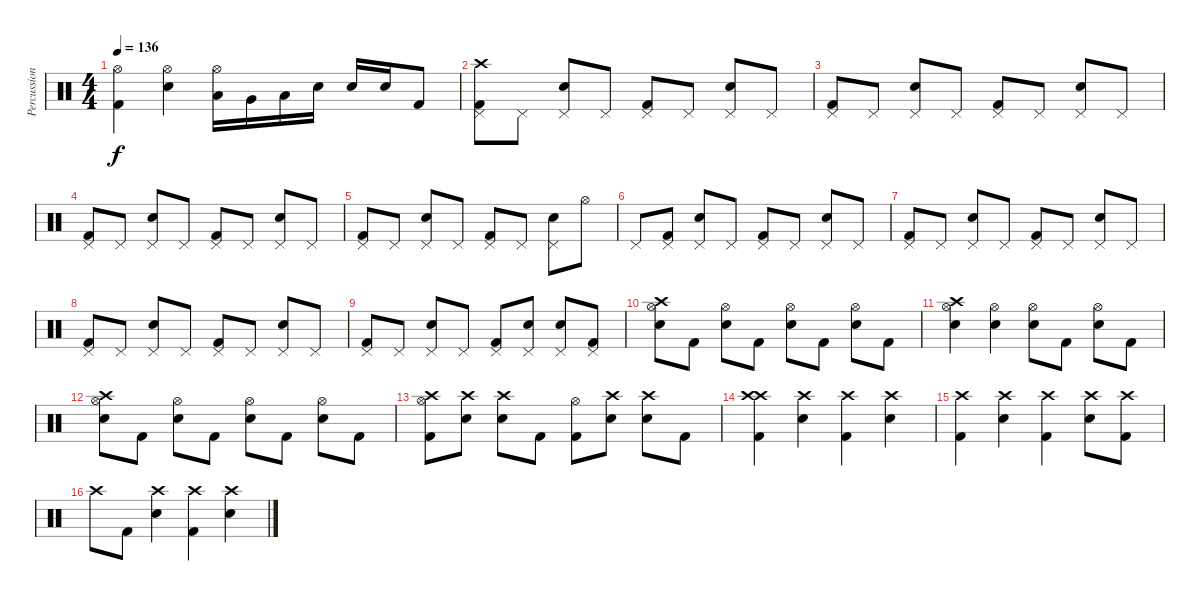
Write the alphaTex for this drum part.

\track ("Percussion" "Percussion") {instrument percussion}
\staff {score}
\articulation defaults
\ts (4 4)
\tempo 136
\clef neutral
\ks c
("Kick (hit) 2" "Hi-Hat (open)").4{dy f} ("Snare (hit) 2" "Hi-Hat (open)").4 ("Low Tom (hit)" "Hi-Hat (open)").16 "Very Low Tom (hit)".16 "Low Floor Tom (hit)".16 "Snare (hit) 2".16 "Snare (hit) 2".16 "Snare (hit) 2".16 "Kick (hit) 2".8 |
("Kick (hit) 2" "Pedal Hi-Hat (hit)" "Crash high (hit)").8 "Pedal Hi-Hat (hit)".8 ("Snare (hit) 2" "Pedal Hi-Hat (hit)").8 "Pedal Hi-Hat (hit)".8 ("Kick (hit) 2" "Pedal Hi-Hat (hit)").8 "Pedal Hi-Hat (hit)".8 ("Snare (hit) 2" "Pedal Hi-Hat (hit)").8 "Pedal Hi-Hat (hit)".8 |
("Kick (hit) 2" "Pedal Hi-Hat (hit)").8 "Pedal Hi-Hat (hit)".8 ("Snare (hit) 2" "Pedal Hi-Hat (hit)").8 "Pedal Hi-Hat (hit)".8 ("Kick (hit) 2" "Pedal Hi-Hat (hit)").8 "Pedal Hi-Hat (hit)".8 ("Snare (hit) 2" "Pedal Hi-Hat (hit)").8 "Pedal Hi-Hat (hit)".8 |
("Kick (hit) 2" "Pedal Hi-Hat (hit)").8 "Pedal Hi-Hat (hit)".8 ("Snare (hit) 2" "Pedal Hi-Hat (hit)").8 "Pedal Hi-Hat (hit)".8 ("Kick (hit) 2" "Pedal Hi-Hat (hit)").8 "Pedal Hi-Hat (hit)".8 ("Snare (hit) 2" "Pedal Hi-Hat (hit)").8 "Pedal Hi-Hat (hit)".8 |
("Kick (hit) 2" "Pedal Hi-Hat (hit)").8 "Pedal Hi-Hat (hit)".8 ("Snare (hit) 2" "Pedal Hi-Hat (hit)").8 "Pedal Hi-Hat (hit)".8 ("Kick (hit) 2" "Pedal Hi-Hat (hit)").8 "Pedal Hi-Hat (hit)".8 ("Snare (hit) 2" "Pedal Hi-Hat (hit)").8 "Hi-Hat (open)".8 |
"Pedal Hi-Hat (hit)".8 ("Kick (hit) 2" "Pedal Hi-Hat (hit)").8 ("Snare (hit) 2" "Pedal Hi-Hat (hit)").8 "Pedal Hi-Hat (hit)".8 ("Kick (hit) 2" "Pedal Hi-Hat (hit)").8 "Pedal Hi-Hat (hit)".8 ("Snare (hit) 2" "Pedal Hi-Hat (hit)").8 "Pedal Hi-Hat (hit)".8 |
("Kick (hit) 2" "Pedal Hi-Hat (hit)").8 "Pedal Hi-Hat (hit)".8 ("Snare (hit) 2" "Pedal Hi-Hat (hit)").8 "Pedal Hi-Hat (hit)".8 ("Kick (hit) 2" "Pedal Hi-Hat (hit)").8 "Pedal Hi-Hat (hit)".8 ("Snare (hit) 2" "Pedal Hi-Hat (hit)").8 "Pedal Hi-Hat (hit)".8 |
("Kick (hit) 2" "Pedal Hi-Hat (hit)").8 "Pedal Hi-Hat (hit)".8 ("Snare (hit) 2" "Pedal Hi-Hat (hit)").8 "Pedal Hi-Hat (hit)".8 ("Kick (hit) 2" "Pedal Hi-Hat (hit)").8 "Pedal Hi-Hat (hit)".8 ("Snare (hit) 2" "Pedal Hi-Hat (hit)").8 "Pedal Hi-Hat (hit)".8 |
("Kick (hit) 2" "Pedal Hi-Hat (hit)").8 "Pedal Hi-Hat (hit)".8 ("Snare (hit) 2" "Pedal Hi-Hat (hit)").8 "Pedal Hi-Hat (hit)".8 ("Kick (hit) 2" "Pedal Hi-Hat (hit)").8 ("Snare (hit) 2" "Pedal Hi-Hat (hit)").8 ("Snare (hit) 2" "Pedal Hi-Hat (hit)").8 ("Kick (hit) 2" "Pedal Hi-Hat (hit)").8 |
("Snare (hit) 2" "Hi-Hat (open)" "Crash high (hit)").8 "Kick (hit) 2".8 ("Snare (hit) 2" "Hi-Hat (open)").8 "Kick (hit) 2".8 ("Snare (hit) 2" "Hi-Hat (open)").8 "Kick (hit) 2".8 ("Snare (hit) 2" "Hi-Hat (open)").8 "Kick (hit) 2".8 |
("Snare (hit) 2" "Hi-Hat (open)" "Crash high (hit)").4 ("Snare (hit) 2" "Hi-Hat (open)").4 ("Snare (hit) 2" "Hi-Hat (open)").8 "Kick (hit) 2".8 ("Snare (hit) 2" "Hi-Hat (open)").8 "Kick (hit) 2".8 |
("Snare (hit) 2" "Hi-Hat (open)" "Crash high (hit)").8 "Kick (hit) 2".8 ("Snare (hit) 2" "Hi-Hat (open)").8 "Kick (hit) 2".8 ("Snare (hit) 2" "Hi-Hat (open)").8 "Kick (hit) 2".8 ("Snare (hit) 2" "Hi-Hat (open)").8 "Kick (hit) 2".8 |
("Kick (hit) 2" "Hi-Hat (open)" "Crash high (hit)").8 ("Snare (hit) 2" "Crash high (hit)").8 ("Snare (hit) 2" "Crash high (hit)").8 "Kick (hit) 2".8 ("Kick (hit) 2" "Hi-Hat (open)").8 ("Snare (hit) 2" "Crash high (hit)").8 ("Snare (hit) 2" "Crash high (hit)").8 "Kick (hit) 2".8 |
("Kick (hit) 2" "Crash high (hit)" "Crash high (hit)").4 ("Snare (hit) 2" "Crash high (hit)").4 ("Kick (hit) 2" "Crash high (hit)").4 ("Snare (hit) 2" "Crash high (hit)").4 |
("Kick (hit) 2" "Crash high (hit)").4 ("Snare (hit) 2" "Crash high (hit)").4 ("Kick (hit) 2" "Crash high (hit)").4 ("Snare (hit) 2" "Crash high (hit)").8 ("Kick (hit) 2" "Crash high (hit)").8 |
"Crash high (hit)".8 "Kick (hit) 2".8 ("Snare (hit) 2" "Crash high (hit)").4 ("Kick (hit) 2" "Crash high (hit)").4 ("Snare (hit) 2" "Crash high (hit)").4
